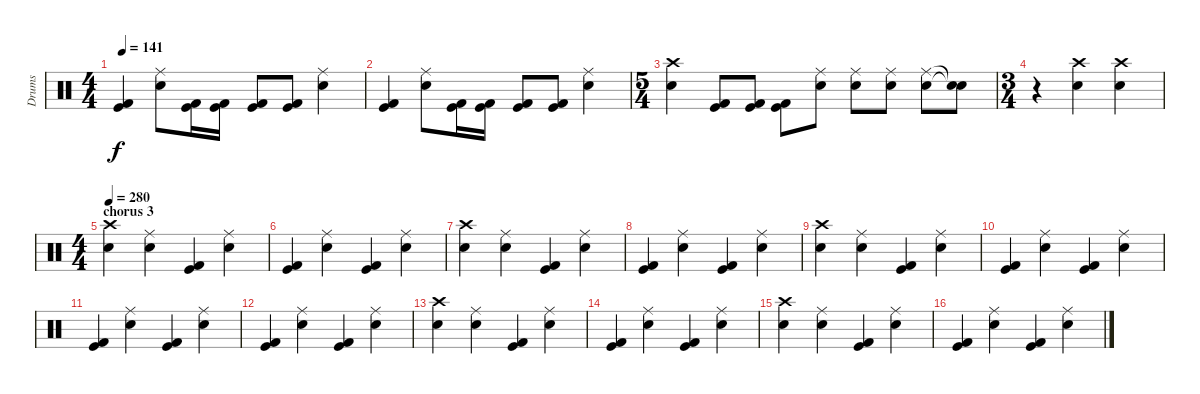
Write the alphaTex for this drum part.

\track ("Drums" "Drums") {instrument percussion}
\staff {score}
\articulation defaults
\ts (4 4)
\tempo 141
\clef neutral
\ks c
("Kick (hit)" "Kick (hit) 2").4{dy f} ("Ride (middle)" "Electric Snare (hit)").8 ("Kick (hit)" "Kick (hit) 2").16 ("Kick (hit)" "Kick (hit) 2").16 ("Kick (hit)" "Kick (hit) 2").8 ("Kick (hit)" "Kick (hit) 2").8 ("Ride (middle)" "Electric Snare (hit)").4 |
("Kick (hit)" "Kick (hit) 2").4 ("Ride (middle)" "Electric Snare (hit)").8 ("Kick (hit)" "Kick (hit) 2").16 ("Kick (hit)" "Kick (hit) 2").16 ("Kick (hit)" "Kick (hit) 2").8 ("Kick (hit)" "Kick (hit) 2").8 ("Ride (middle)" "Electric Snare (hit)").4 |
\ts (5 4)
("Crash high (hit)" "Electric Snare (hit)").4 ("Kick (hit)" "Kick (hit) 2").8 ("Kick (hit)" "Kick (hit) 2").8 ("Kick (hit)" "Kick (hit) 2").8 ("Ride (middle)" "Electric Snare (hit)").8 ("Ride (middle)" "Electric Snare (hit)").8 ("Ride (middle)" "Electric Snare (hit)").8 ("Ride (middle)" "Electric Snare (hit)").8 ("Snare (hit)"{t} "Snare (hit)"{t}).8 |
\ts (3 4)
r.4 ("Crash high (hit)" "Electric Snare (hit)").4 ("Crash high (hit)" "Electric Snare (hit)").4 |
\ts (4 4)
\section ("" "chorus 3")
\tempo 280
("Crash high (hit)" "Electric Snare (hit)").4 ("Ride (middle)" "Electric Snare (hit)").4 ("Kick (hit)" "Kick (hit) 2").4 ("Ride (middle)" "Electric Snare (hit)").4 |
("Kick (hit)" "Kick (hit) 2").4 ("Ride (middle)" "Electric Snare (hit)").4 ("Kick (hit)" "Kick (hit) 2").4 ("Ride (middle)" "Electric Snare (hit)").4 |
("Crash high (hit)" "Electric Snare (hit)").4 ("Ride (middle)" "Electric Snare (hit)").4 ("Kick (hit)" "Kick (hit) 2").4 ("Ride (middle)" "Electric Snare (hit)").4 |
("Kick (hit)" "Kick (hit) 2").4 ("Ride (middle)" "Electric Snare (hit)").4 ("Kick (hit)" "Kick (hit) 2").4 ("Ride (middle)" "Electric Snare (hit)").4 |
("Crash high (hit)" "Electric Snare (hit)").4 ("Ride (middle)" "Electric Snare (hit)").4 ("Kick (hit)" "Kick (hit) 2").4 ("Ride (middle)" "Electric Snare (hit)").4 |
("Kick (hit)" "Kick (hit) 2").4 ("Ride (middle)" "Electric Snare (hit)").4 ("Kick (hit)" "Kick (hit) 2").4 ("Ride (middle)" "Electric Snare (hit)").4 |
("Kick (hit)" "Kick (hit) 2").4 ("Ride (middle)" "Electric Snare (hit)").4 ("Kick (hit)" "Kick (hit) 2").4 ("Ride (middle)" "Electric Snare (hit)").4 |
("Kick (hit)" "Kick (hit) 2").4 ("Ride (middle)" "Electric Snare (hit)").4 ("Kick (hit)" "Kick (hit) 2").4 ("Ride (middle)" "Electric Snare (hit)").4 |
("Crash high (hit)" "Electric Snare (hit)").4 ("Ride (middle)" "Electric Snare (hit)").4 ("Kick (hit)" "Kick (hit) 2").4 ("Ride (middle)" "Electric Snare (hit)").4 |
("Kick (hit)" "Kick (hit) 2").4 ("Ride (middle)" "Electric Snare (hit)").4 ("Kick (hit)" "Kick (hit) 2").4 ("Ride (middle)" "Electric Snare (hit)").4 |
("Crash high (hit)" "Electric Snare (hit)").4 ("Ride (middle)" "Electric Snare (hit)").4 ("Kick (hit)" "Kick (hit) 2").4 ("Ride (middle)" "Electric Snare (hit)").4 |
("Kick (hit)" "Kick (hit) 2").4 ("Ride (middle)" "Electric Snare (hit)").4 ("Kick (hit)" "Kick (hit) 2").4 ("Ride (middle)" "Electric Snare (hit)").4
